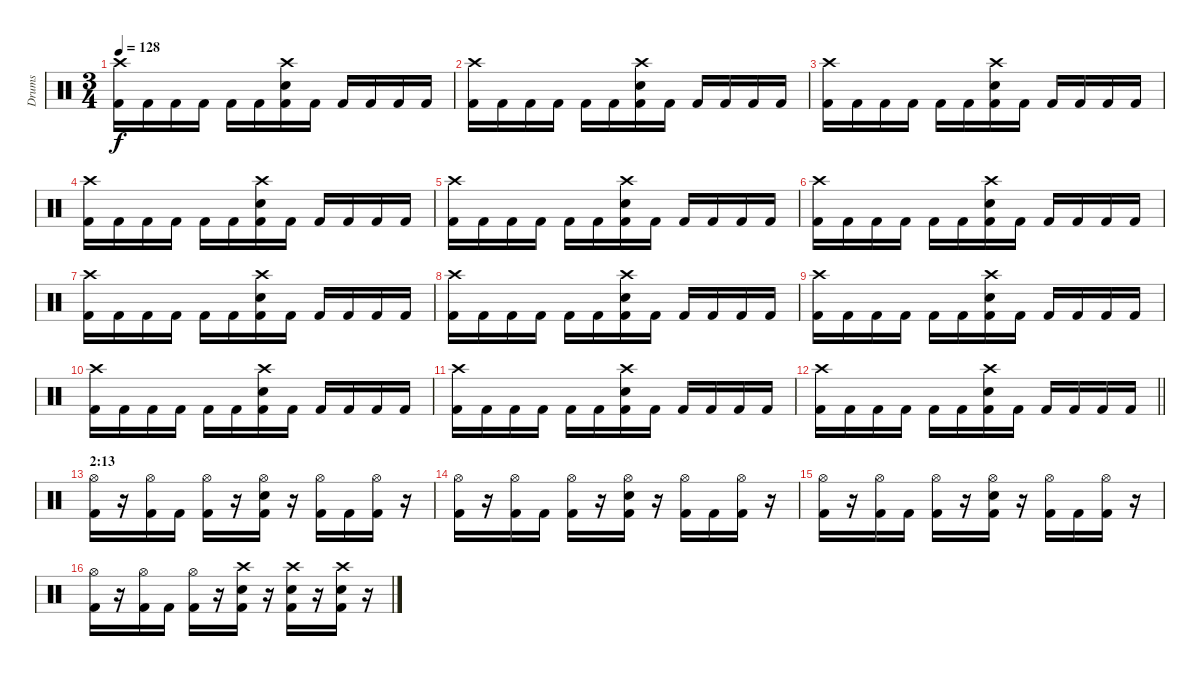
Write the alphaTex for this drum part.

\track ("Drums" "Drums") {instrument percussion}
\staff {score}
\articulation defaults
\ts (3 4)
\tempo 128
\clef neutral
\ks c
("Crash high (hit)" "Kick (hit) 2").16{dy f} "Kick (hit) 2".16 "Kick (hit) 2".16 "Kick (hit) 2".16 "Kick (hit) 2".16 "Kick (hit) 2".16 ("Crash high (hit)" "Snare (hit) 2" "Kick (hit) 2").16 "Kick (hit) 2".16 "Kick (hit) 2".16 "Kick (hit) 2".16 "Kick (hit) 2".16 "Kick (hit) 2".16 |
("Crash high (hit)" "Kick (hit) 2").16 "Kick (hit) 2".16 "Kick (hit) 2".16 "Kick (hit) 2".16 "Kick (hit) 2".16 "Kick (hit) 2".16 ("Crash high (hit)" "Snare (hit) 2" "Kick (hit) 2").16 "Kick (hit) 2".16 "Kick (hit) 2".16 "Kick (hit) 2".16 "Kick (hit) 2".16 "Kick (hit) 2".16 |
("Crash high (hit)" "Kick (hit) 2").16 "Kick (hit) 2".16 "Kick (hit) 2".16 "Kick (hit) 2".16 "Kick (hit) 2".16 "Kick (hit) 2".16 ("Crash high (hit)" "Snare (hit) 2" "Kick (hit) 2").16 "Kick (hit) 2".16 "Kick (hit) 2".16 "Kick (hit) 2".16 "Kick (hit) 2".16 "Kick (hit) 2".16 |
("Crash high (hit)" "Kick (hit) 2").16 "Kick (hit) 2".16 "Kick (hit) 2".16 "Kick (hit) 2".16 "Kick (hit) 2".16 "Kick (hit) 2".16 ("Crash high (hit)" "Snare (hit) 2" "Kick (hit) 2").16 "Kick (hit) 2".16 "Kick (hit) 2".16 "Kick (hit) 2".16 "Kick (hit) 2".16 "Kick (hit) 2".16 |
("Crash high (hit)" "Kick (hit) 2").16 "Kick (hit) 2".16 "Kick (hit) 2".16 "Kick (hit) 2".16 "Kick (hit) 2".16 "Kick (hit) 2".16 ("Crash high (hit)" "Snare (hit) 2" "Kick (hit) 2").16 "Kick (hit) 2".16 "Kick (hit) 2".16 "Kick (hit) 2".16 "Kick (hit) 2".16 "Kick (hit) 2".16 |
("Crash high (hit)" "Kick (hit) 2").16 "Kick (hit) 2".16 "Kick (hit) 2".16 "Kick (hit) 2".16 "Kick (hit) 2".16 "Kick (hit) 2".16 ("Crash high (hit)" "Snare (hit) 2" "Kick (hit) 2").16 "Kick (hit) 2".16 "Kick (hit) 2".16 "Kick (hit) 2".16 "Kick (hit) 2".16 "Kick (hit) 2".16 |
("Crash high (hit)" "Kick (hit) 2").16 "Kick (hit) 2".16 "Kick (hit) 2".16 "Kick (hit) 2".16 "Kick (hit) 2".16 "Kick (hit) 2".16 ("Crash high (hit)" "Snare (hit) 2" "Kick (hit) 2").16 "Kick (hit) 2".16 "Kick (hit) 2".16 "Kick (hit) 2".16 "Kick (hit) 2".16 "Kick (hit) 2".16 |
("Crash high (hit)" "Kick (hit) 2").16 "Kick (hit) 2".16 "Kick (hit) 2".16 "Kick (hit) 2".16 "Kick (hit) 2".16 "Kick (hit) 2".16 ("Crash high (hit)" "Snare (hit) 2" "Kick (hit) 2").16 "Kick (hit) 2".16 "Kick (hit) 2".16 "Kick (hit) 2".16 "Kick (hit) 2".16 "Kick (hit) 2".16 |
("Crash high (hit)" "Kick (hit) 2").16 "Kick (hit) 2".16 "Kick (hit) 2".16 "Kick (hit) 2".16 "Kick (hit) 2".16 "Kick (hit) 2".16 ("Crash high (hit)" "Snare (hit) 2" "Kick (hit) 2").16 "Kick (hit) 2".16 "Kick (hit) 2".16 "Kick (hit) 2".16 "Kick (hit) 2".16 "Kick (hit) 2".16 |
("Crash high (hit)" "Kick (hit) 2").16 "Kick (hit) 2".16 "Kick (hit) 2".16 "Kick (hit) 2".16 "Kick (hit) 2".16 "Kick (hit) 2".16 ("Crash high (hit)" "Snare (hit) 2" "Kick (hit) 2").16 "Kick (hit) 2".16 "Kick (hit) 2".16 "Kick (hit) 2".16 "Kick (hit) 2".16 "Kick (hit) 2".16 |
("Crash high (hit)" "Kick (hit) 2").16 "Kick (hit) 2".16 "Kick (hit) 2".16 "Kick (hit) 2".16 "Kick (hit) 2".16 "Kick (hit) 2".16 ("Crash high (hit)" "Snare (hit) 2" "Kick (hit) 2").16 "Kick (hit) 2".16 "Kick (hit) 2".16 "Kick (hit) 2".16 "Kick (hit) 2".16 "Kick (hit) 2".16 |
\barLineRight lightlight
("Crash high (hit)" "Kick (hit) 2").16 "Kick (hit) 2".16 "Kick (hit) 2".16 "Kick (hit) 2".16 "Kick (hit) 2".16 "Kick (hit) 2".16 ("Crash high (hit)" "Snare (hit) 2" "Kick (hit) 2").16 "Kick (hit) 2".16 "Kick (hit) 2".16 "Kick (hit) 2".16 "Kick (hit) 2".16 "Kick (hit) 2".16 |
\section ("" "2:13")
("Hi-Hat (open)" "Kick (hit) 2").16 r.16 ("Hi-Hat (open)" "Kick (hit) 2").16 "Kick (hit) 2".16 ("Hi-Hat (open)" "Kick (hit) 2").16 r.16 ("Hi-Hat (open)" "Snare (hit) 2" "Kick (hit) 2").16 r.16 ("Hi-Hat (open)" "Kick (hit) 2").16 "Kick (hit) 2".16 ("Hi-Hat (open)" "Kick (hit) 2").16 r.16 |
("Hi-Hat (open)" "Kick (hit) 2").16 r.16 ("Hi-Hat (open)" "Kick (hit) 2").16 "Kick (hit) 2".16 ("Hi-Hat (open)" "Kick (hit) 2").16 r.16 ("Hi-Hat (open)" "Snare (hit) 2" "Kick (hit) 2").16 r.16 ("Hi-Hat (open)" "Kick (hit) 2").16 "Kick (hit) 2".16 ("Hi-Hat (open)" "Kick (hit) 2").16 r.16 |
("Hi-Hat (open)" "Kick (hit) 2").16 r.16 ("Hi-Hat (open)" "Kick (hit) 2").16 "Kick (hit) 2".16 ("Hi-Hat (open)" "Kick (hit) 2").16 r.16 ("Hi-Hat (open)" "Snare (hit) 2" "Kick (hit) 2").16 r.16 ("Hi-Hat (open)" "Kick (hit) 2").16 "Kick (hit) 2".16 ("Hi-Hat (open)" "Kick (hit) 2").16 r.16 |
("Hi-Hat (open)" "Kick (hit) 2").16 r.16 ("Hi-Hat (open)" "Kick (hit) 2").16 "Kick (hit) 2".16 ("Hi-Hat (open)" "Kick (hit) 2").16 r.16 ("Crash high (hit)" "Snare (hit) 2" "Kick (hit) 2").16 r.16 ("Crash high (hit)" "Snare (hit) 2" "Kick (hit) 2").16 r.16 ("Crash high (hit)" "Snare (hit) 2" "Kick (hit) 2").16 r.16
